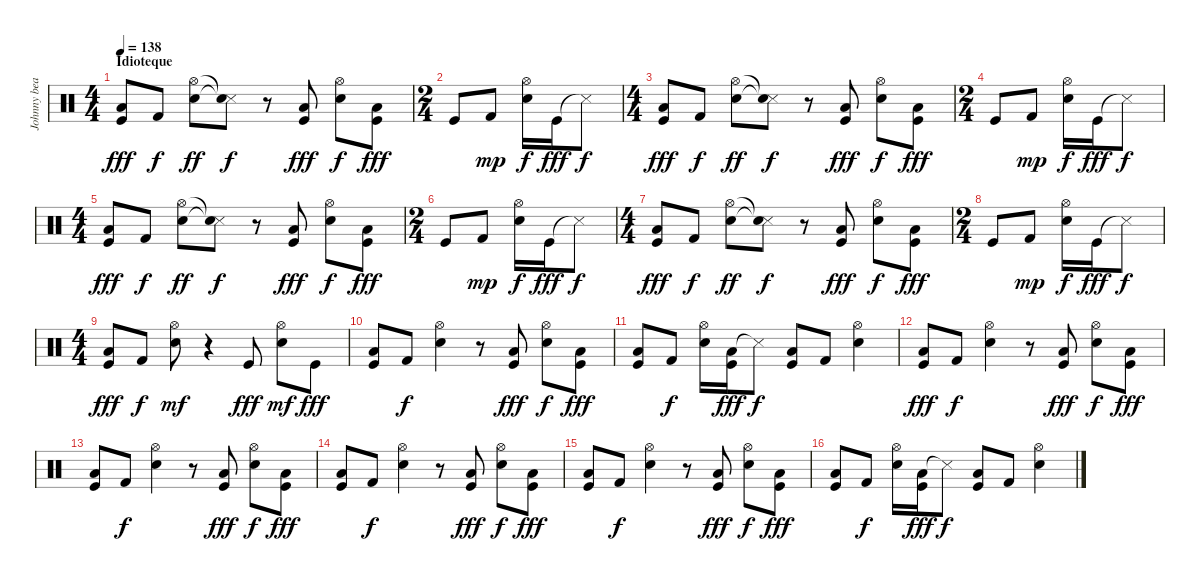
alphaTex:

\track ("Johnny beat" "Johnny bea") {instrument percussion}
\staff {score}
\articulation defaults
\ts (4 4)
\section ("" "Idioteque")
\tempo 138
\clef neutral
\ks c
("Low Tom (hit)" "Kick (hit)").8{dy fff} "Kick (hit) 2".8{dy f} ("Electric Snare (hit)" "Hi-Hat (open)").8{dy ff} ("Snare (side stick) 3"{t} "Snare (hit)"{t}).8{dy f} r.8 ("Low Tom (hit)" "Kick (hit)").8{dy fff} ("Electric Snare (hit)" "Hi-Hat (open)").8{dy f} ("Low Tom (hit)" "Kick (hit)").8{dy fff} |
\ts (2 4)
"Kick (hit)".8 "Kick (hit) 2".8{dy mp} ("Electric Snare (hit)" "Hi-Hat (open)").16{dy f} "Kick (hit)".16{dy fff} "Snare (side stick) 3"{t}.8{dy f} |
\ts (4 4)
("Low Tom (hit)" "Kick (hit)").8{dy fff} "Kick (hit) 2".8{dy f} ("Electric Snare (hit)" "Hi-Hat (open)").8{dy ff} ("Snare (side stick) 3"{t} "Snare (hit)"{t}).8{dy f} r.8 ("Low Tom (hit)" "Kick (hit)").8{dy fff} ("Electric Snare (hit)" "Hi-Hat (open)").8{dy f} ("Low Tom (hit)" "Kick (hit)").8{dy fff} |
\ts (2 4)
"Kick (hit)".8 "Kick (hit) 2".8{dy mp} ("Electric Snare (hit)" "Hi-Hat (open)").16{dy f} "Kick (hit)".16{dy fff} "Snare (side stick) 3"{t}.8{dy f} |
\ts (4 4)
("Low Tom (hit)" "Kick (hit)").8{dy fff} "Kick (hit) 2".8{dy f} ("Electric Snare (hit)" "Hi-Hat (open)").8{dy ff} ("Snare (side stick) 3"{t} "Snare (hit)"{t}).8{dy f} r.8 ("Low Tom (hit)" "Kick (hit)").8{dy fff} ("Electric Snare (hit)" "Hi-Hat (open)").8{dy f} ("Low Tom (hit)" "Kick (hit)").8{dy fff} |
\ts (2 4)
"Kick (hit)".8 "Kick (hit) 2".8{dy mp} ("Electric Snare (hit)" "Hi-Hat (open)").16{dy f} "Kick (hit)".16{dy fff} "Snare (side stick) 3"{t}.8{dy f} |
\ts (4 4)
("Low Tom (hit)" "Kick (hit)").8{dy fff} "Kick (hit) 2".8{dy f} ("Electric Snare (hit)" "Hi-Hat (open)").8{dy ff} ("Snare (side stick) 3"{t} "Snare (hit)"{t}).8{dy f} r.8 ("Low Tom (hit)" "Kick (hit)").8{dy fff} ("Electric Snare (hit)" "Hi-Hat (open)").8{dy f} ("Low Tom (hit)" "Kick (hit)").8{dy fff} |
\ts (2 4)
"Kick (hit)".8 "Kick (hit) 2".8{dy mp} ("Electric Snare (hit)" "Hi-Hat (open)").16{dy f} "Kick (hit)".16{dy fff} "Snare (side stick) 3"{t}.8{dy f} |
\ts (4 4)
("Low Tom (hit)" "Kick (hit)").8{dy fff} "Kick (hit) 2".8{dy f} ("Electric Snare (hit)" "Hi-Hat (open)").8{dy mf} r.4 "Kick (hit)".8{dy fff} ("Electric Snare (hit)" "Hi-Hat (open)").8{dy mf} "Kick (hit)".8{dy fff} |
("Low Tom (hit)" "Kick (hit)").8 "Kick (hit) 2".8{dy f} ("Electric Snare (hit)" "Hi-Hat (open)").4 r.8 ("Low Tom (hit)" "Kick (hit)").8{dy fff} ("Electric Snare (hit)" "Hi-Hat (open)").8{dy f} ("Low Tom (hit)" "Kick (hit)").8{dy fff} |
("Low Tom (hit)" "Kick (hit)").8 "Kick (hit) 2".8{dy f} ("Electric Snare (hit)" "Hi-Hat (open)").16 ("Low Tom (hit)" "Kick (hit)").16{dy fff} "Snare (side stick) 3"{t}.8{dy f} ("Kick (hit)" "Low Tom (hit)").8 "Kick (hit) 2".8 ("Electric Snare (hit)" "Hi-Hat (open)").4 |
("Low Tom (hit)" "Kick (hit)").8{dy fff} "Kick (hit) 2".8{dy f} ("Electric Snare (hit)" "Hi-Hat (open)").4 r.8 ("Low Tom (hit)" "Kick (hit)").8{dy fff} ("Electric Snare (hit)" "Hi-Hat (open)").8{dy f} ("Low Tom (hit)" "Kick (hit)").8{dy fff} |
("Low Tom (hit)" "Kick (hit)").8 "Kick (hit) 2".8{dy f} ("Electric Snare (hit)" "Hi-Hat (open)").4 r.8 ("Low Tom (hit)" "Kick (hit)").8{dy fff} ("Electric Snare (hit)" "Hi-Hat (open)").8{dy f} ("Low Tom (hit)" "Kick (hit)").8{dy fff} |
("Low Tom (hit)" "Kick (hit)").8 "Kick (hit) 2".8{dy f} ("Electric Snare (hit)" "Hi-Hat (open)").4 r.8 ("Low Tom (hit)" "Kick (hit)").8{dy fff} ("Electric Snare (hit)" "Hi-Hat (open)").8{dy f} ("Low Tom (hit)" "Kick (hit)").8{dy fff} |
("Low Tom (hit)" "Kick (hit)").8 "Kick (hit) 2".8{dy f} ("Electric Snare (hit)" "Hi-Hat (open)").4 r.8 ("Low Tom (hit)" "Kick (hit)").8{dy fff} ("Electric Snare (hit)" "Hi-Hat (open)").8{dy f} ("Low Tom (hit)" "Kick (hit)").8{dy fff} |
("Low Tom (hit)" "Kick (hit)").8 "Kick (hit) 2".8{dy f} ("Electric Snare (hit)" "Hi-Hat (open)").16 ("Low Tom (hit)" "Kick (hit)").16{dy fff} "Snare (side stick) 3"{t}.8{dy f} ("Kick (hit)" "Low Tom (hit)").8 "Kick (hit) 2".8 ("Electric Snare (hit)" "Hi-Hat (open)").4
